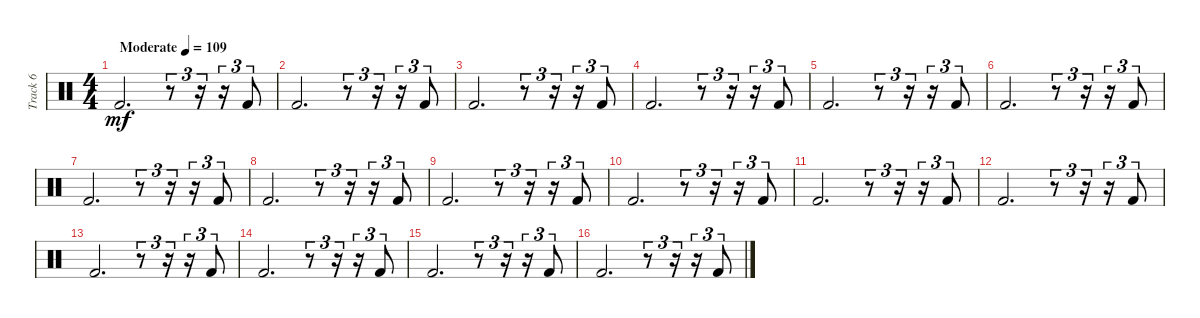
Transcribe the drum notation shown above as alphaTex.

\track ("Track 6" "Track 6") {instrument percussion}
\staff {score}
\articulation defaults
\ts (4 4)
\tempo (109 "Moderate")
\clef neutral
\ks c "Kick (hit) 2".2{d dy mf}
r.8{tu (3 2)} r.16{tu (3 2)} r.16{tu (3 2)} "Kick (hit) 2".8{tu (3 2)} |
"Kick (hit) 2".2{d} r.8{tu (3 2)} r.16{tu (3 2)} r.16{tu (3 2)} "Kick (hit) 2".8{tu (3 2)} |
"Kick (hit) 2".2{d} r.8{tu (3 2)} r.16{tu (3 2)} r.16{tu (3 2)} "Kick (hit) 2".8{tu (3 2)} |
"Kick (hit) 2".2{d} r.8{tu (3 2)} r.16{tu (3 2)} r.16{tu (3 2)} "Kick (hit) 2".8{tu (3 2)} |
"Kick (hit) 2".2{d} r.8{tu (3 2)} r.16{tu (3 2)} r.16{tu (3 2)} "Kick (hit) 2".8{tu (3 2)} |
"Kick (hit) 2".2{d} r.8{tu (3 2)} r.16{tu (3 2)} r.16{tu (3 2)} "Kick (hit) 2".8{tu (3 2)} |
"Kick (hit) 2".2{d} r.8{tu (3 2)} r.16{tu (3 2)} r.16{tu (3 2)} "Kick (hit) 2".8{tu (3 2)} |
"Kick (hit) 2".2{d} r.8{tu (3 2)} r.16{tu (3 2)} r.16{tu (3 2)} "Kick (hit) 2".8{tu (3 2)} |
"Kick (hit) 2".2{d} r.8{tu (3 2)} r.16{tu (3 2)} r.16{tu (3 2)} "Kick (hit) 2".8{tu (3 2)} |
"Kick (hit) 2".2{d} r.8{tu (3 2)} r.16{tu (3 2)} r.16{tu (3 2)} "Kick (hit) 2".8{tu (3 2)} |
"Kick (hit) 2".2{d} r.8{tu (3 2)} r.16{tu (3 2)} r.16{tu (3 2)} "Kick (hit) 2".8{tu (3 2)} |
"Kick (hit) 2".2{d} r.8{tu (3 2)} r.16{tu (3 2)} r.16{tu (3 2)} "Kick (hit) 2".8{tu (3 2)} |
"Kick (hit) 2".2{d} r.8{tu (3 2)} r.16{tu (3 2)} r.16{tu (3 2)} "Kick (hit) 2".8{tu (3 2)} |
"Kick (hit) 2".2{d} r.8{tu (3 2)} r.16{tu (3 2)} r.16{tu (3 2)} "Kick (hit) 2".8{tu (3 2)} |
"Kick (hit) 2".2{d} r.8{tu (3 2)} r.16{tu (3 2)} r.16{tu (3 2)} "Kick (hit) 2".8{tu (3 2)} |
"Kick (hit) 2".2{d} r.8{tu (3 2)} r.16{tu (3 2)} r.16{tu (3 2)} "Kick (hit) 2".8{tu (3 2)}
